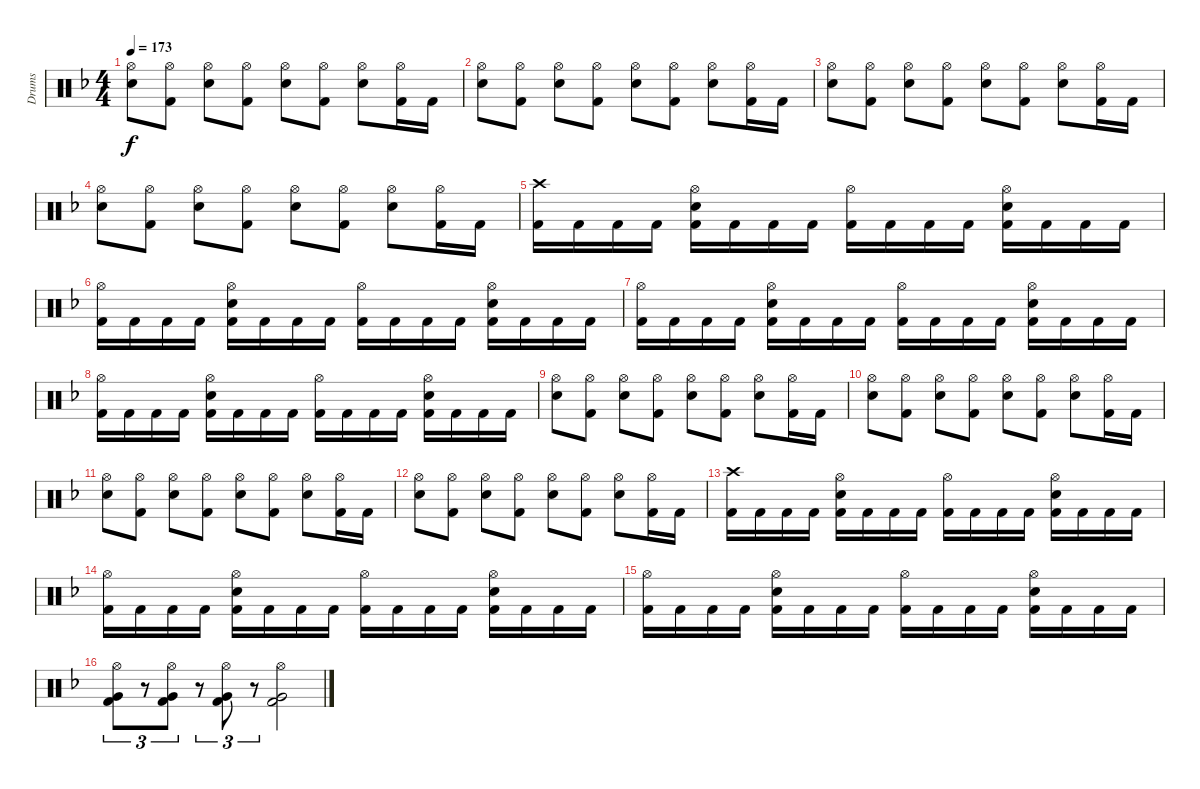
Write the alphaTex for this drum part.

\track ("Drums" "Drums") {instrument percussion}
\staff {score}
\articulation defaults
\ts (4 4)
\tempo 173
\clef neutral
\ks dminor
("Hi-Hat (open)" "Snare (hit) 2").8{dy f} ("Hi-Hat (open)" "Kick (hit) 2").8 ("Hi-Hat (open)" "Snare (hit) 2").8 ("Hi-Hat (open)" "Kick (hit) 2").8 ("Hi-Hat (open)" "Snare (hit) 2").8 ("Hi-Hat (open)" "Kick (hit) 2").8 ("Hi-Hat (open)" "Snare (hit) 2").8 ("Hi-Hat (open)" "Kick (hit) 2").16 "Kick (hit) 2".16 |
("Hi-Hat (open)" "Snare (hit) 2").8 ("Hi-Hat (open)" "Kick (hit) 2").8 ("Hi-Hat (open)" "Snare (hit) 2").8 ("Hi-Hat (open)" "Kick (hit) 2").8 ("Hi-Hat (open)" "Snare (hit) 2").8 ("Hi-Hat (open)" "Kick (hit) 2").8 ("Hi-Hat (open)" "Snare (hit) 2").8 ("Hi-Hat (open)" "Kick (hit) 2").16 "Kick (hit) 2".16 |
("Hi-Hat (open)" "Snare (hit) 2").8 ("Hi-Hat (open)" "Kick (hit) 2").8 ("Hi-Hat (open)" "Snare (hit) 2").8 ("Hi-Hat (open)" "Kick (hit) 2").8 ("Hi-Hat (open)" "Snare (hit) 2").8 ("Hi-Hat (open)" "Kick (hit) 2").8 ("Hi-Hat (open)" "Snare (hit) 2").8 ("Hi-Hat (open)" "Kick (hit) 2").16 "Kick (hit) 2".16 |
("Hi-Hat (open)" "Snare (hit) 2").8 ("Hi-Hat (open)" "Kick (hit) 2").8 ("Hi-Hat (open)" "Snare (hit) 2").8 ("Hi-Hat (open)" "Kick (hit) 2").8 ("Hi-Hat (open)" "Snare (hit) 2").8 ("Hi-Hat (open)" "Kick (hit) 2").8 ("Hi-Hat (open)" "Snare (hit) 2").8 ("Hi-Hat (open)" "Kick (hit) 2").16 "Kick (hit) 2".16 |
("Crash high (hit)" "Kick (hit) 2").16 "Kick (hit) 2".16 "Kick (hit) 2".16 "Kick (hit) 2".16 ("Hi-Hat (open)" "Snare (hit) 2" "Kick (hit) 2").16 "Kick (hit) 2".16 "Kick (hit) 2".16 "Kick (hit) 2".16 ("Hi-Hat (open)" "Kick (hit) 2").16 "Kick (hit) 2".16 "Kick (hit) 2".16 "Kick (hit) 2".16 ("Hi-Hat (open)" "Snare (hit) 2" "Kick (hit) 2").16 "Kick (hit) 2".16 "Kick (hit) 2".16 "Kick (hit) 2".16 |
("Hi-Hat (open)" "Kick (hit) 2").16 "Kick (hit) 2".16 "Kick (hit) 2".16 "Kick (hit) 2".16 ("Hi-Hat (open)" "Snare (hit) 2" "Kick (hit) 2").16 "Kick (hit) 2".16 "Kick (hit) 2".16 "Kick (hit) 2".16 ("Hi-Hat (open)" "Kick (hit) 2").16 "Kick (hit) 2".16 "Kick (hit) 2".16 "Kick (hit) 2".16 ("Hi-Hat (open)" "Snare (hit) 2" "Kick (hit) 2").16 "Kick (hit) 2".16 "Kick (hit) 2".16 "Kick (hit) 2".16 |
("Hi-Hat (open)" "Kick (hit) 2").16 "Kick (hit) 2".16 "Kick (hit) 2".16 "Kick (hit) 2".16 ("Hi-Hat (open)" "Snare (hit) 2" "Kick (hit) 2").16 "Kick (hit) 2".16 "Kick (hit) 2".16 "Kick (hit) 2".16 ("Hi-Hat (open)" "Kick (hit) 2").16 "Kick (hit) 2".16 "Kick (hit) 2".16 "Kick (hit) 2".16 ("Hi-Hat (open)" "Snare (hit) 2" "Kick (hit) 2").16 "Kick (hit) 2".16 "Kick (hit) 2".16 "Kick (hit) 2".16 |
("Hi-Hat (open)" "Kick (hit) 2").16 "Kick (hit) 2".16 "Kick (hit) 2".16 "Kick (hit) 2".16 ("Hi-Hat (open)" "Snare (hit) 2" "Kick (hit) 2").16 "Kick (hit) 2".16 "Kick (hit) 2".16 "Kick (hit) 2".16 ("Hi-Hat (open)" "Kick (hit) 2").16 "Kick (hit) 2".16 "Kick (hit) 2".16 "Kick (hit) 2".16 ("Hi-Hat (open)" "Snare (hit) 2" "Kick (hit) 2").16 "Kick (hit) 2".16 "Kick (hit) 2".16 "Kick (hit) 2".16 |
("Hi-Hat (open)" "Snare (hit) 2").8 ("Hi-Hat (open)" "Kick (hit) 2").8 ("Hi-Hat (open)" "Snare (hit) 2").8 ("Hi-Hat (open)" "Kick (hit) 2").8 ("Hi-Hat (open)" "Snare (hit) 2").8 ("Hi-Hat (open)" "Kick (hit) 2").8 ("Hi-Hat (open)" "Snare (hit) 2").8 ("Hi-Hat (open)" "Kick (hit) 2").16 "Kick (hit) 2".16 |
("Hi-Hat (open)" "Snare (hit) 2").8 ("Hi-Hat (open)" "Kick (hit) 2").8 ("Hi-Hat (open)" "Snare (hit) 2").8 ("Hi-Hat (open)" "Kick (hit) 2").8 ("Hi-Hat (open)" "Snare (hit) 2").8 ("Hi-Hat (open)" "Kick (hit) 2").8 ("Hi-Hat (open)" "Snare (hit) 2").8 ("Hi-Hat (open)" "Kick (hit) 2").16 "Kick (hit) 2".16 |
("Hi-Hat (open)" "Snare (hit) 2").8 ("Hi-Hat (open)" "Kick (hit) 2").8 ("Hi-Hat (open)" "Snare (hit) 2").8 ("Hi-Hat (open)" "Kick (hit) 2").8 ("Hi-Hat (open)" "Snare (hit) 2").8 ("Hi-Hat (open)" "Kick (hit) 2").8 ("Hi-Hat (open)" "Snare (hit) 2").8 ("Hi-Hat (open)" "Kick (hit) 2").16 "Kick (hit) 2".16 |
("Hi-Hat (open)" "Snare (hit) 2").8 ("Hi-Hat (open)" "Kick (hit) 2").8 ("Hi-Hat (open)" "Snare (hit) 2").8 ("Hi-Hat (open)" "Kick (hit) 2").8 ("Hi-Hat (open)" "Snare (hit) 2").8 ("Hi-Hat (open)" "Kick (hit) 2").8 ("Hi-Hat (open)" "Snare (hit) 2").8 ("Hi-Hat (open)" "Kick (hit) 2").16 "Kick (hit) 2".16 |
("Crash high (hit)" "Kick (hit) 2").16 "Kick (hit) 2".16 "Kick (hit) 2".16 "Kick (hit) 2".16 ("Hi-Hat (open)" "Snare (hit) 2" "Kick (hit) 2").16 "Kick (hit) 2".16 "Kick (hit) 2".16 "Kick (hit) 2".16 ("Hi-Hat (open)" "Kick (hit) 2").16 "Kick (hit) 2".16 "Kick (hit) 2".16 "Kick (hit) 2".16 ("Hi-Hat (open)" "Snare (hit) 2" "Kick (hit) 2").16 "Kick (hit) 2".16 "Kick (hit) 2".16 "Kick (hit) 2".16 |
("Hi-Hat (open)" "Kick (hit) 2").16 "Kick (hit) 2".16 "Kick (hit) 2".16 "Kick (hit) 2".16 ("Hi-Hat (open)" "Snare (hit) 2" "Kick (hit) 2").16 "Kick (hit) 2".16 "Kick (hit) 2".16 "Kick (hit) 2".16 ("Hi-Hat (open)" "Kick (hit) 2").16 "Kick (hit) 2".16 "Kick (hit) 2".16 "Kick (hit) 2".16 ("Hi-Hat (open)" "Snare (hit) 2" "Kick (hit) 2").16 "Kick (hit) 2".16 "Kick (hit) 2".16 "Kick (hit) 2".16 |
("Hi-Hat (open)" "Kick (hit) 2").16 "Kick (hit) 2".16 "Kick (hit) 2".16 "Kick (hit) 2".16 ("Hi-Hat (open)" "Snare (hit) 2" "Kick (hit) 2").16 "Kick (hit) 2".16 "Kick (hit) 2".16 "Kick (hit) 2".16 ("Hi-Hat (open)" "Kick (hit) 2").16 "Kick (hit) 2".16 "Kick (hit) 2".16 "Kick (hit) 2".16 ("Hi-Hat (open)" "Snare (hit) 2" "Kick (hit) 2").16 "Kick (hit) 2".16 "Kick (hit) 2".16 "Kick (hit) 2".16 |
("Hi-Hat (open)" "Very Low Tom (hit)" "Kick (hit) 2").8{tu (3 2)} r.8{tu (3 2)} ("Hi-Hat (open)" "Very Low Tom (hit)" "Kick (hit) 2").8{tu (3 2)} r.8{tu (3 2)} ("Hi-Hat (open)" "Very Low Tom (hit)" "Kick (hit) 2").8{tu (3 2)} r.8{tu (3 2)} ("Hi-Hat (open)" "Very Low Tom (hit)" "Kick (hit) 2").2
